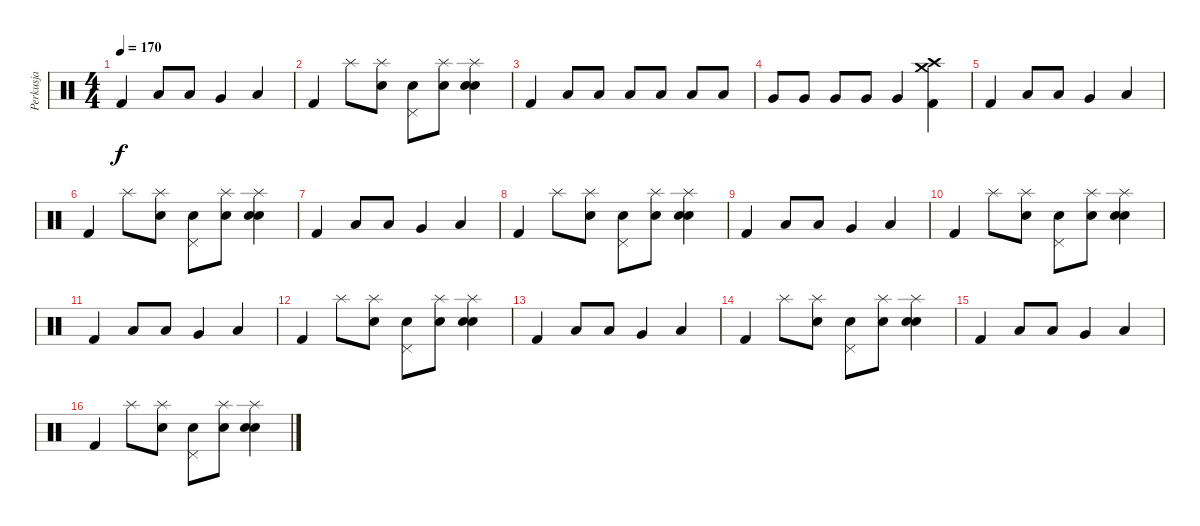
\track ("Perkusja" "Perkusja") {instrument percussion}
\staff {score}
\articulation defaults
\ts (4 4)
\tempo 170
\clef neutral
\ks c "Kick (hit) 2".4{dy f} "Low Tom (hit)".8 "Low Tom (hit)".8 "Very Low Tom (hit)".4 "Low Tom (hit)".4
|
"Kick (hit) 2".4 "Splash (hit)".8 ("Splash (hit)" "Electric Snare (hit)").8 ("Pedal Hi-Hat (hit)" "Electric Snare (hit)").8 ("Splash (hit)" "Electric Snare (hit)").8 ("Splash (hit)" "Electric Snare (hit)" "Snare (hit) 2").4 |
"Kick (hit) 2".4 "Low Tom (hit)".8 "Low Tom (hit)".8 "Low Tom (hit)".8 "Low Tom (hit)".8 "Low Tom (hit)".8 "Low Tom (hit)".8 |
"Very Low Tom (hit)".8 "Very Low Tom (hit)".8 "Very Low Tom (hit)".8 "Very Low Tom (hit)".8 "Very Low Tom (hit)".4 ("Crash high (hit)" "Crash medium (hit)" "Kick (hit) 2").4 |
"Kick (hit) 2".4 "Low Tom (hit)".8 "Low Tom (hit)".8 "Very Low Tom (hit)".4 "Low Tom (hit)".4 |
"Kick (hit) 2".4 "Splash (hit)".8 ("Splash (hit)" "Electric Snare (hit)").8 ("Pedal Hi-Hat (hit)" "Electric Snare (hit)").8 ("Splash (hit)" "Electric Snare (hit)").8 ("Splash (hit)" "Electric Snare (hit)" "Snare (hit) 2").4 |
"Kick (hit) 2".4 "Low Tom (hit)".8 "Low Tom (hit)".8 "Very Low Tom (hit)".4 "Low Tom (hit)".4 |
"Kick (hit) 2".4 "Splash (hit)".8 ("Splash (hit)" "Electric Snare (hit)").8 ("Pedal Hi-Hat (hit)" "Electric Snare (hit)").8 ("Splash (hit)" "Electric Snare (hit)").8 ("Splash (hit)" "Electric Snare (hit)" "Snare (hit) 2").4 |
"Kick (hit) 2".4 "Low Tom (hit)".8 "Low Tom (hit)".8 "Very Low Tom (hit)".4 "Low Tom (hit)".4 |
"Kick (hit) 2".4 "Splash (hit)".8 ("Splash (hit)" "Electric Snare (hit)").8 ("Pedal Hi-Hat (hit)" "Electric Snare (hit)").8 ("Splash (hit)" "Electric Snare (hit)").8 ("Splash (hit)" "Electric Snare (hit)" "Snare (hit) 2").4 |
"Kick (hit) 2".4 "Low Tom (hit)".8 "Low Tom (hit)".8 "Very Low Tom (hit)".4 "Low Tom (hit)".4 |
"Kick (hit) 2".4 "Splash (hit)".8 ("Splash (hit)" "Electric Snare (hit)").8 ("Pedal Hi-Hat (hit)" "Electric Snare (hit)").8 ("Splash (hit)" "Electric Snare (hit)").8 ("Splash (hit)" "Electric Snare (hit)" "Snare (hit) 2").4 |
"Kick (hit) 2".4 "Low Tom (hit)".8 "Low Tom (hit)".8 "Very Low Tom (hit)".4 "Low Tom (hit)".4 |
"Kick (hit) 2".4 "Splash (hit)".8 ("Splash (hit)" "Electric Snare (hit)").8 ("Pedal Hi-Hat (hit)" "Electric Snare (hit)").8 ("Splash (hit)" "Electric Snare (hit)").8 ("Splash (hit)" "Electric Snare (hit)" "Snare (hit) 2").4 |
"Kick (hit) 2".4 "Low Tom (hit)".8 "Low Tom (hit)".8 "Very Low Tom (hit)".4 "Low Tom (hit)".4 |
"Kick (hit) 2".4 "Splash (hit)".8 ("Splash (hit)" "Electric Snare (hit)").8 ("Pedal Hi-Hat (hit)" "Electric Snare (hit)").8 ("Splash (hit)" "Electric Snare (hit)").8 ("Splash (hit)" "Electric Snare (hit)" "Snare (hit) 2").4
